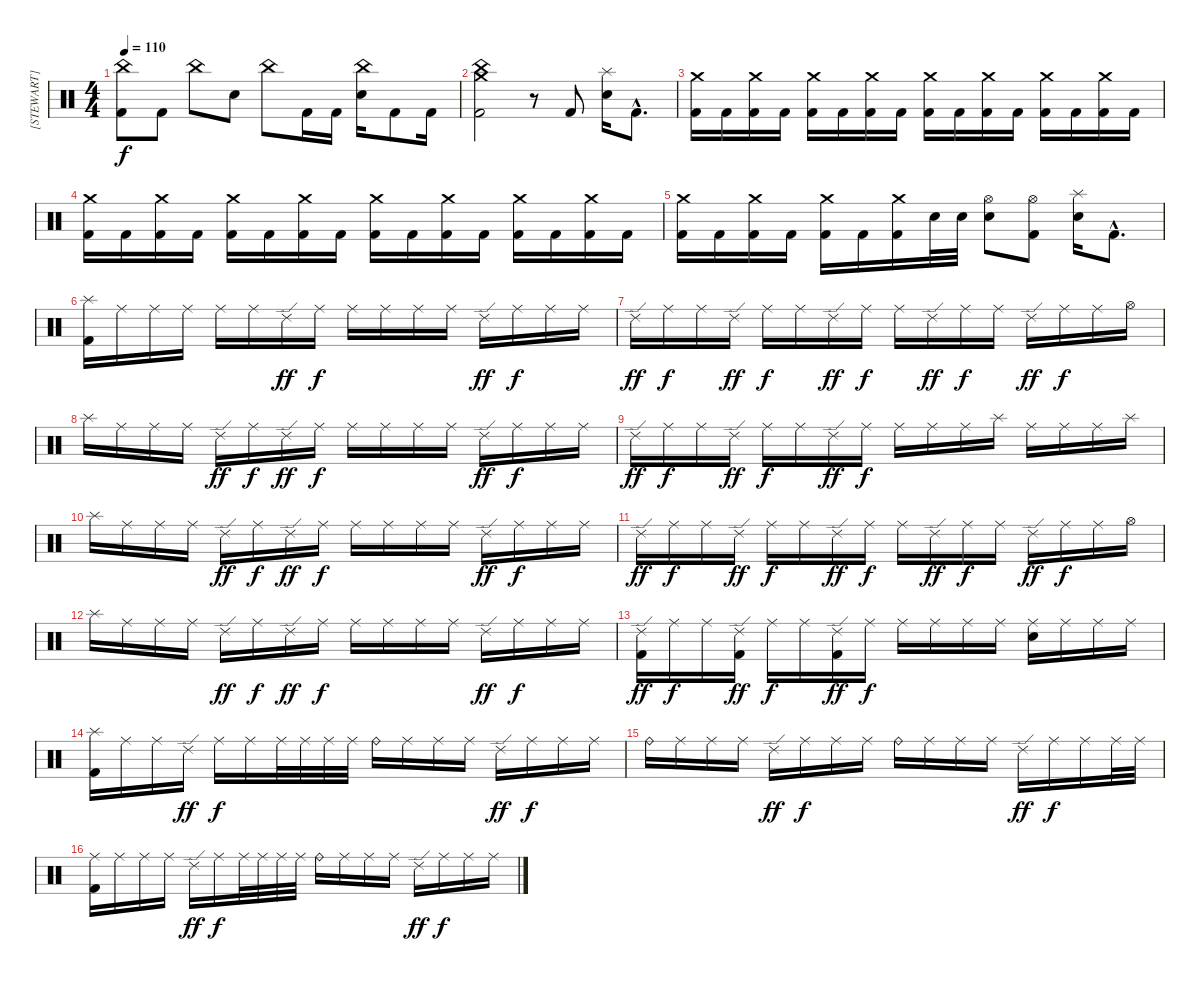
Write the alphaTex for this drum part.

\track ("[STEWART]" "[STEWART]") {instrument percussion}
\staff {score}
\articulation defaults
\ts (4 4)
\tempo 110
\clef neutral
\ks c
("China (hit)" "Kick (hit) 2").8{dy f} "Kick (hit) 2".8 "China (hit)".8 "Electric Snare (hit)".8 "China (hit)".8 "Kick (hit) 2".16 "Kick (hit) 2".16 ("China (hit)" "Electric Snare (hit)").16 "Kick (hit) 2".8 "Kick (hit) 2".16 |
("China (hit)" "Crash medium (hit)" "Kick (hit) 2").2 r.8 "Kick (hit) 2".8 ("Splash (hit)" "Electric Snare (hit)").16 "Kick (hit) 2"{hac}.8{d} |
("Crash medium (hit)" "Kick (hit) 2").16 "Kick (hit) 2".16 ("Crash medium (hit)" "Kick (hit) 2").16 "Kick (hit) 2".16 ("Crash medium (hit)" "Kick (hit) 2").16 "Kick (hit) 2".16 ("Crash medium (hit)" "Kick (hit) 2").16 "Kick (hit) 2".16 ("Crash medium (hit)" "Kick (hit) 2").16 "Kick (hit) 2".16 ("Crash medium (hit)" "Kick (hit) 2").16 "Kick (hit) 2".16 ("Crash medium (hit)" "Kick (hit) 2").16 "Kick (hit) 2".16 ("Crash medium (hit)" "Kick (hit) 2").16 "Kick (hit) 2".16 |
("Crash medium (hit)" "Kick (hit) 2").16 "Kick (hit) 2".16 ("Crash medium (hit)" "Kick (hit) 2").16 "Kick (hit) 2".16 ("Crash medium (hit)" "Kick (hit) 2").16 "Kick (hit) 2".16 ("Crash medium (hit)" "Kick (hit) 2").16 "Kick (hit) 2".16 ("Crash medium (hit)" "Kick (hit) 2").16 "Kick (hit) 2".16 ("Crash medium (hit)" "Kick (hit) 2").16 "Kick (hit) 2".16 ("Crash medium (hit)" "Kick (hit) 2").16 "Kick (hit) 2".16 ("Crash medium (hit)" "Kick (hit) 2").16 "Kick (hit) 2".16 |
("Crash medium (hit)" "Kick (hit) 2").16 "Kick (hit) 2".16 ("Crash medium (hit)" "Kick (hit) 2").16 "Kick (hit) 2".16 ("Crash medium (hit)" "Kick (hit) 2").16 "Kick (hit) 2".16 ("Crash medium (hit)" "Kick (hit) 2").16 "Electric Snare (hit)".32 "Electric Snare (hit)".32 ("Hi-Hat (open)" "Electric Snare (hit)").8 ("Hi-Hat (open)" "Kick (hit) 2").8 ("Splash (hit)" "Electric Snare (hit)").16 "Kick (hit) 2"{hac}.8{d} |
("Splash (hit)" "Kick (hit) 2").16 "Ride (middle)".16 "Ride (middle)".16 "Ride (middle)".16 "Ride (middle)".16 "Ride (middle)".16 "Ride (edge) 2".16{dy ff} "Ride (middle)".16{dy f} "Ride (middle)".16 "Ride (middle)".16 "Ride (middle)".16 "Ride (middle)".16 "Ride (edge) 2".16{dy ff} "Ride (middle)".16{dy f} "Ride (middle)".16 "Ride (middle)".16 |
"Ride (edge) 2".16{dy ff} "Ride (middle)".16{dy f} "Ride (middle)".16 "Ride (edge) 2".16{dy ff} "Ride (middle)".16{dy f} "Ride (middle)".16 "Ride (edge) 2".16{dy ff} "Ride (middle)".16{dy f} "Ride (middle)".16 "Ride (edge) 2".16{dy ff} "Ride (middle)".16{dy f} "Ride (middle)".16 "Ride (edge) 2".16{dy ff} "Ride (middle)".16{dy f} "Ride (middle)".16 "Hi-Hat (open)".16 |
"Splash (hit)".16 "Ride (middle)".16 "Ride (middle)".16 "Ride (middle)".16 "Ride (edge) 2".16{dy ff} "Ride (middle)".16{dy f} "Ride (edge) 2".16{dy ff} "Ride (middle)".16{dy f} "Ride (middle)".16 "Ride (middle)".16 "Ride (middle)".16 "Ride (middle)".16 "Ride (edge) 2".16{dy ff} "Ride (middle)".16{dy f} "Ride (middle)".16 "Ride (middle)".16 |
"Ride (edge) 2".16{dy ff} "Ride (middle)".16{dy f} "Ride (middle)".16 "Ride (edge) 2".16{dy ff} "Ride (middle)".16{dy f} "Ride (middle)".16 "Ride (edge) 2".16{dy ff} "Ride (middle)".16{dy f} "Ride (middle)".16 "Ride (middle)".16 "Ride (middle)".16 "Splash (hit)".16 "Ride (middle)".16 "Ride (middle)".16 "Ride (middle)".16 "Splash (hit)".16 |
"Splash (hit)".16 "Ride (middle)".16 "Ride (middle)".16 "Ride (middle)".16 "Ride (edge) 2".16{dy ff} "Ride (middle)".16{dy f} "Ride (edge) 2".16{dy ff} "Ride (middle)".16{dy f} "Ride (middle)".16 "Ride (middle)".16 "Ride (middle)".16 "Ride (middle)".16 "Ride (edge) 2".16{dy ff} "Ride (middle)".16{dy f} "Ride (middle)".16 "Ride (middle)".16 |
"Ride (edge) 2".16{dy ff} "Ride (middle)".16{dy f} "Ride (middle)".16 "Ride (edge) 2".16{dy ff} "Ride (middle)".16{dy f} "Ride (middle)".16 "Ride (edge) 2".16{dy ff} "Ride (middle)".16{dy f} "Ride (middle)".16 "Ride (edge) 2".16{dy ff} "Ride (middle)".16{dy f} "Ride (middle)".16 "Ride (edge) 2".16{dy ff} "Ride (middle)".16{dy f} "Ride (middle)".16 "Hi-Hat (open)".16 |
"Splash (hit)".16 "Ride (middle)".16 "Ride (middle)".16 "Ride (middle)".16 "Ride (edge) 2".16{dy ff} "Ride (middle)".16{dy f} "Ride (edge) 2".16{dy ff} "Ride (middle)".16{dy f} "Ride (middle)".16 "Ride (middle)".16 "Ride (middle)".16 "Ride (middle)".16 "Ride (edge) 2".16{dy ff} "Ride (middle)".16{dy f} "Ride (middle)".16 "Ride (middle)".16 |
("Ride (edge) 2" "Kick (hit) 2").16{dy ff} "Ride (middle)".16{dy f} "Ride (middle)".16 ("Ride (edge) 2" "Kick (hit) 2").16{dy ff} "Ride (middle)".16{dy f} "Ride (middle)".16 ("Ride (edge) 2" "Kick (hit) 2").16{dy ff} "Ride (middle)".16{dy f} "Ride (middle)".16 "Ride (middle)".16 "Ride (middle)".16 "Ride (middle)".16 ("Ride (middle)" "Electric Snare (hit)").16 "Ride (middle)".16 "Ride (middle)".16 "Ride (middle)".16 |
("Splash (hit)" "Kick (hit) 2").16 "Ride (middle)".16 "Ride (middle)".16 "Ride (edge) 2".16{dy ff} "Ride (middle)".16{dy f} "Ride (middle)".16 "Ride (middle)".32 "Ride (middle)".32 "Ride (middle)".32 "Ride (middle)".32 "Ride (bell)".16 "Ride (middle)".16 "Ride (middle)".16 "Ride (middle)".16 "Ride (edge) 2".16{dy ff} "Ride (middle)".16{dy f} "Ride (middle)".16 "Ride (middle)".16 |
"Ride (bell)".16 "Ride (middle)".16 "Ride (middle)".16 "Ride (middle)".16 "Ride (edge) 2".16{dy ff} "Ride (middle)".16{dy f} "Ride (middle)".16 "Ride (middle)".16 "Ride (bell)".16 "Ride (middle)".16 "Ride (middle)".16 "Ride (middle)".16 "Ride (edge) 2".16{dy ff} "Ride (middle)".16{dy f} "Ride (middle)".16 "Ride (middle)".32 "Ride (middle)".32 |
("Ride (middle)" "Kick (hit) 2").16 "Ride (middle)".16 "Ride (middle)".16 "Ride (middle)".16 "Ride (edge) 2".16{dy ff} "Ride (middle)".16{dy f} "Ride (middle)".32 "Ride (middle)".32 "Ride (middle)".32 "Ride (middle)".32 "Ride (bell)".16 "Ride (middle)".16 "Ride (middle)".16 "Ride (middle)".16 "Ride (edge) 2".16{dy ff} "Ride (middle)".16{dy f} "Ride (middle)".16 "Ride (middle)".16
